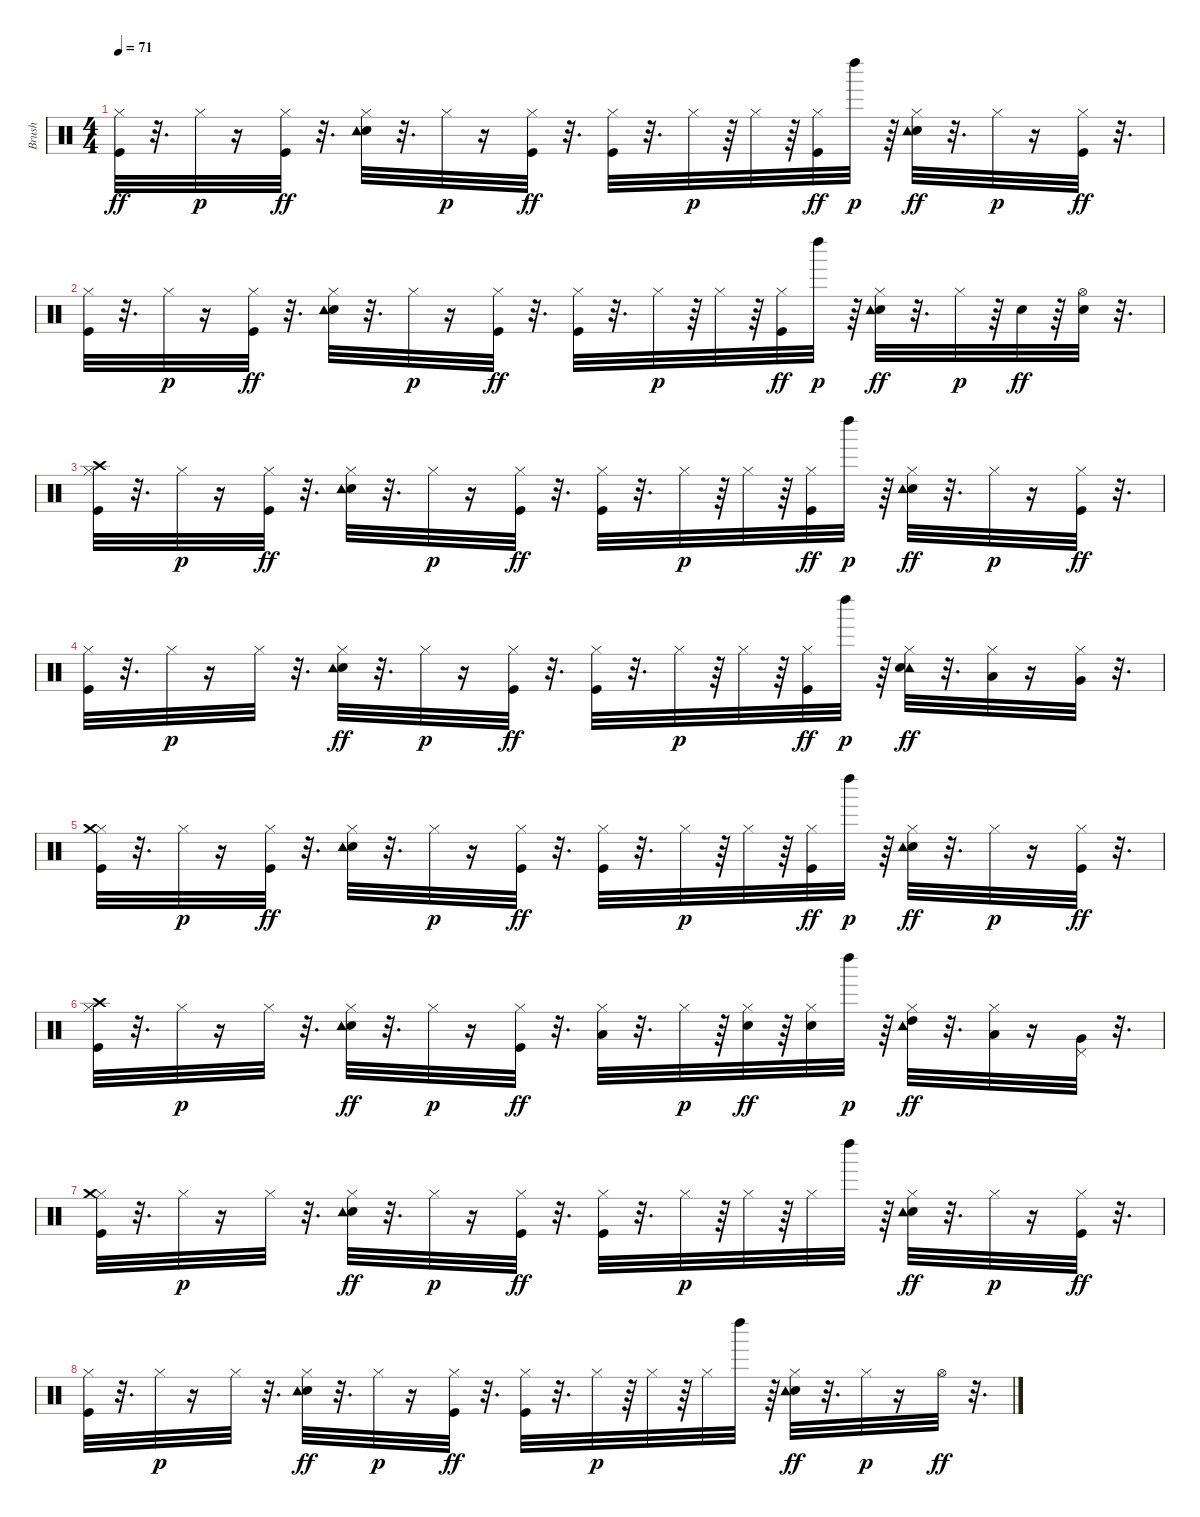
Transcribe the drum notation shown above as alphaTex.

\track ("Brush               " "Brush     ") {instrument percussion}
\staff {score}
\articulation defaults
\ts (4 4)
\tempo 71
\clef neutral
\ks c
("Hi-Hat (closed)" "Kick (hit)").32{dy ff} r.32{d} "Hi-Hat (closed)".32{dy p} r.16 ("Hi-Hat (closed)" "Kick (hit)").32{dy ff} r.32{d} ("Hi-Hat (closed)" "Snare (hit) 2" "Tambourine (hit)").32 r.32{d} "Hi-Hat (closed)".32{dy p} r.16 ("Hi-Hat (closed)" "Kick (hit)").32{dy ff} r.32{d} ("Hi-Hat (closed)" "Kick (hit)").32 r.32{d} "Hi-Hat (closed)".32{dy p} r.64 "Hi-Hat (closed)".32 r.64 ("Hi-Hat (closed)" "Kick (hit)").32{dy ff} "Left Maraca (hit)".32{dy p} r.64 ("Hi-Hat (closed)" "Snare (hit) 2" "Tambourine (hit)").32{dy ff} r.32{d} "Hi-Hat (closed)".32{dy p} r.16 ("Hi-Hat (closed)" "Kick (hit)").32{dy ff} r.32{d} |
("Hi-Hat (closed)" "Kick (hit)").32 r.32{d} "Hi-Hat (closed)".32{dy p} r.16 ("Hi-Hat (closed)" "Kick (hit)").32{dy ff} r.32{d} ("Hi-Hat (closed)" "Snare (hit) 2" "Tambourine (hit)").32 r.32{d} "Hi-Hat (closed)".32{dy p} r.16 ("Hi-Hat (closed)" "Kick (hit)").32{dy ff} r.32{d} ("Hi-Hat (closed)" "Kick (hit)").32 r.32{d} "Hi-Hat (closed)".32{dy p} r.64 "Hi-Hat (closed)".32 r.64 ("Hi-Hat (closed)" "Kick (hit)").32{dy ff} "Left Maraca (hit)".32{dy p} r.64 ("Hi-Hat (closed)" "Snare (hit) 2" "Tambourine (hit)").32{dy ff} r.32{d} "Hi-Hat (closed)".32{dy p} r.64 "Snare (hit) 2".32{dy ff} r.64 ("Hi-Hat (open)" "Snare (hit) 2").32 r.32{d} |
("Hi-Hat (closed)" "Kick (hit)" "Crash high (hit)").32 r.32{d} "Hi-Hat (closed)".32{dy p} r.16 ("Hi-Hat (closed)" "Kick (hit)").32{dy ff} r.32{d} ("Hi-Hat (closed)" "Snare (hit) 2" "Tambourine (hit)").32 r.32{d} "Hi-Hat (closed)".32{dy p} r.16 ("Hi-Hat (closed)" "Kick (hit)").32{dy ff} r.32{d} ("Hi-Hat (closed)" "Kick (hit)").32 r.32{d} "Hi-Hat (closed)".32{dy p} r.64 "Hi-Hat (closed)".32 r.64 ("Hi-Hat (closed)" "Kick (hit)").32{dy ff} "Left Maraca (hit)".32{dy p} r.64 ("Hi-Hat (closed)" "Snare (hit) 2" "Tambourine (hit)").32{dy ff} r.32{d} "Hi-Hat (closed)".32{dy p} r.16 ("Hi-Hat (closed)" "Kick (hit)").32{dy ff} r.32{d} |
("Hi-Hat (closed)" "Kick (hit)").32 r.32{d} "Hi-Hat (closed)".32{dy p} r.16 "Hi-Hat (closed)".32 r.32{d} ("Hi-Hat (closed)" "Snare (hit) 2" "Tambourine (hit)").32{dy ff} r.32{d} "Hi-Hat (closed)".32{dy p} r.16 ("Hi-Hat (closed)" "Kick (hit)").32{dy ff} r.32{d} ("Hi-Hat (closed)" "Kick (hit)").32 r.32{d} "Hi-Hat (closed)".32{dy p} r.64 "Hi-Hat (closed)".32 r.64 ("Hi-Hat (closed)" "Kick (hit)").32{dy ff} "Left Maraca (hit)".32{dy p} r.64 ("Hi-Hat (closed)" "Tambourine (hit)" "Snare (hit) 2").32{dy ff} r.32{d} ("Hi-Hat (closed)" "Low Tom (hit)").32 r.16 ("Hi-Hat (closed)" "Very Low Tom (hit)").32 r.32{d} |
("Hi-Hat (closed)" "Kick (hit)" "Crash medium (hit)").32 r.32{d} "Hi-Hat (closed)".32{dy p} r.16 ("Hi-Hat (closed)" "Kick (hit)").32{dy ff} r.32{d} ("Hi-Hat (closed)" "Snare (hit) 2" "Tambourine (hit)").32 r.32{d} "Hi-Hat (closed)".32{dy p} r.16 ("Hi-Hat (closed)" "Kick (hit)").32{dy ff} r.32{d} ("Hi-Hat (closed)" "Kick (hit)").32 r.32{d} "Hi-Hat (closed)".32{dy p} r.64 "Hi-Hat (closed)".32 r.64 ("Hi-Hat (closed)" "Kick (hit)").32{dy ff} "Left Maraca (hit)".32{dy p} r.64 ("Hi-Hat (closed)" "Snare (hit) 2" "Tambourine (hit)").32{dy ff} r.32{d} "Hi-Hat (closed)".32{dy p} r.16 ("Hi-Hat (closed)" "Kick (hit)").32{dy ff} r.32{d} |
("Hi-Hat (closed)" "Kick (hit)" "Crash high (hit)").32 r.32{d} "Hi-Hat (closed)".32{dy p} r.16 "Hi-Hat (closed)".32 r.32{d} ("Hi-Hat (closed)" "Snare (hit) 2" "Tambourine (hit)").32{dy ff} r.32{d} "Hi-Hat (closed)".32{dy p} r.16 ("Hi-Hat (closed)" "Kick (hit)").32{dy ff} r.32{d} ("Hi-Hat (closed)" "Low Tom (hit)").32 r.32{d} "Hi-Hat (closed)".32{dy p} r.64 ("Hi-Hat (closed)" "Snare (hit) 2").32{dy ff} r.64 ("Hi-Hat (closed)" "Snare (hit) 2").32 "Left Maraca (hit)".32{dy p} r.64 ("Hi-Hat (closed)" "Tambourine (hit)" "High Tom (hit)").32{dy ff} r.32{d} ("Hi-Hat (closed)" "Low Tom (hit)").32 r.16 ("Very Low Tom (hit)" "Pedal Hi-Hat (hit)").32 r.32{d} |
("Hi-Hat (closed)" "Kick (hit)" "Crash medium (hit)").32 r.32{d} "Hi-Hat (closed)".32{dy p} r.16 "Hi-Hat (closed)".32 r.32{d} ("Hi-Hat (closed)" "Snare (hit) 2" "Tambourine (hit)").32{dy ff} r.32{d} "Hi-Hat (closed)".32{dy p} r.16 ("Hi-Hat (closed)" "Kick (hit)").32{dy ff} r.32{d} ("Hi-Hat (closed)" "Kick (hit)").32 r.32{d} "Hi-Hat (closed)".32{dy p} r.64 "Hi-Hat (closed)".32 r.64 "Hi-Hat (closed)".32 "Left Maraca (hit)".32 r.64 ("Hi-Hat (closed)" "Snare (hit) 2" "Tambourine (hit)").32{dy ff} r.32{d} "Hi-Hat (closed)".32{dy p} r.16 ("Hi-Hat (closed)" "Kick (hit)").32{dy ff} r.32{d} |
("Hi-Hat (closed)" "Kick (hit)").32 r.32{d} "Hi-Hat (closed)".32{dy p} r.16 "Hi-Hat (closed)".32 r.32{d} ("Hi-Hat (closed)" "Snare (hit) 2" "Tambourine (hit)").32{dy ff} r.32{d} "Hi-Hat (closed)".32{dy p} r.16 ("Hi-Hat (closed)" "Kick (hit)").32{dy ff} r.32{d} ("Hi-Hat (closed)" "Kick (hit)").32 r.32{d} "Hi-Hat (closed)".32{dy p} r.64 "Hi-Hat (closed)".32 r.64 "Hi-Hat (closed)".32 "Left Maraca (hit)".32 r.64 ("Hi-Hat (closed)" "Snare (hit) 2" "Tambourine (hit)").32{dy ff} r.32{d} "Hi-Hat (closed)".32{dy p} r.16 "Hi-Hat (open)".32{dy ff} r.32{d}
